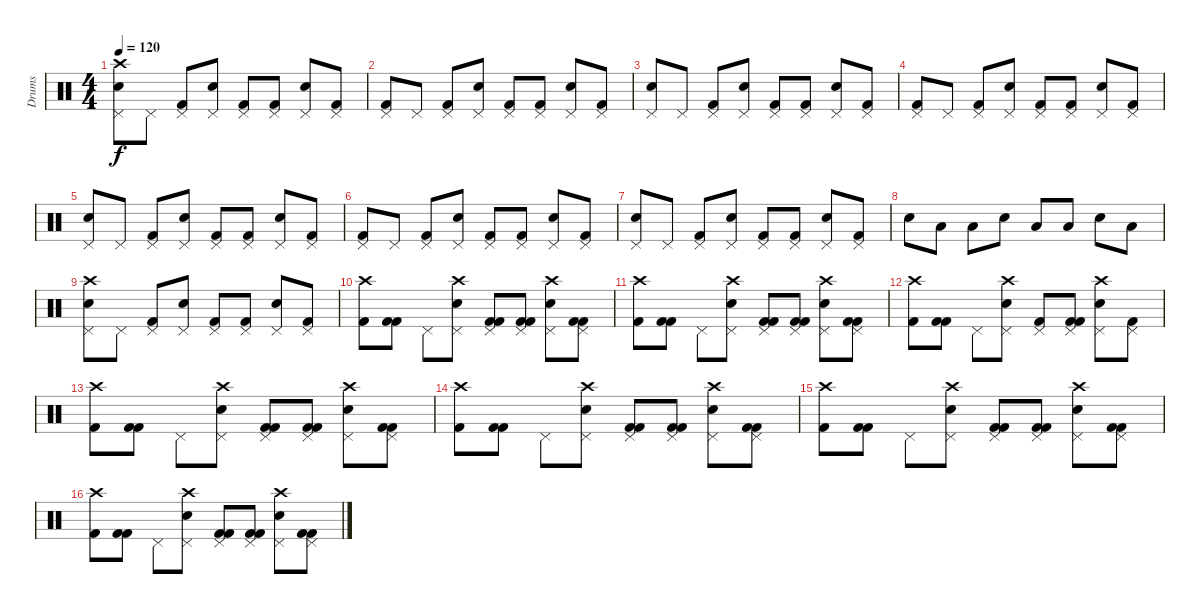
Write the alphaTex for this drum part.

\track ("Drums" "Drums") {instrument percussion}
\staff {score}
\articulation defaults
\ts (4 4)
\tempo 120
\clef neutral
\ks c
("Crash high (hit)" "Snare (hit) 2" "Pedal Hi-Hat (hit)").8{dy f} "Pedal Hi-Hat (hit)".8 ("Kick (hit) 2" "Pedal Hi-Hat (hit)").8 ("Snare (hit) 2" "Pedal Hi-Hat (hit)").8 ("Kick (hit) 2" "Pedal Hi-Hat (hit)").8 ("Kick (hit) 2" "Pedal Hi-Hat (hit)").8 ("Snare (hit) 2" "Pedal Hi-Hat (hit)").8 ("Kick (hit) 2" "Pedal Hi-Hat (hit)").8 |
("Kick (hit) 2" "Pedal Hi-Hat (hit)").8 "Pedal Hi-Hat (hit)".8 ("Kick (hit) 2" "Pedal Hi-Hat (hit)").8 ("Snare (hit) 2" "Pedal Hi-Hat (hit)").8 ("Kick (hit) 2" "Pedal Hi-Hat (hit)").8 ("Kick (hit) 2" "Pedal Hi-Hat (hit)").8 ("Snare (hit) 2" "Pedal Hi-Hat (hit)").8 ("Kick (hit) 2" "Pedal Hi-Hat (hit)").8 |
("Snare (hit) 2" "Pedal Hi-Hat (hit)").8 "Pedal Hi-Hat (hit)".8 ("Kick (hit) 2" "Pedal Hi-Hat (hit)").8 ("Snare (hit) 2" "Pedal Hi-Hat (hit)").8 ("Kick (hit) 2" "Pedal Hi-Hat (hit)").8 ("Kick (hit) 2" "Pedal Hi-Hat (hit)").8 ("Snare (hit) 2" "Pedal Hi-Hat (hit)").8 ("Kick (hit) 2" "Pedal Hi-Hat (hit)").8 |
("Kick (hit) 2" "Pedal Hi-Hat (hit)").8 "Pedal Hi-Hat (hit)".8 ("Kick (hit) 2" "Pedal Hi-Hat (hit)").8 ("Snare (hit) 2" "Pedal Hi-Hat (hit)").8 ("Kick (hit) 2" "Pedal Hi-Hat (hit)").8 ("Kick (hit) 2" "Pedal Hi-Hat (hit)").8 ("Snare (hit) 2" "Pedal Hi-Hat (hit)").8 ("Kick (hit) 2" "Pedal Hi-Hat (hit)").8 |
("Snare (hit) 2" "Pedal Hi-Hat (hit)").8 "Pedal Hi-Hat (hit)".8 ("Kick (hit) 2" "Pedal Hi-Hat (hit)").8 ("Snare (hit) 2" "Pedal Hi-Hat (hit)").8 ("Kick (hit) 2" "Pedal Hi-Hat (hit)").8 ("Kick (hit) 2" "Pedal Hi-Hat (hit)").8 ("Snare (hit) 2" "Pedal Hi-Hat (hit)").8 ("Kick (hit) 2" "Pedal Hi-Hat (hit)").8 |
("Kick (hit) 2" "Pedal Hi-Hat (hit)").8 "Pedal Hi-Hat (hit)".8 ("Kick (hit) 2" "Pedal Hi-Hat (hit)").8 ("Snare (hit) 2" "Pedal Hi-Hat (hit)").8 ("Kick (hit) 2" "Pedal Hi-Hat (hit)").8 ("Kick (hit) 2" "Pedal Hi-Hat (hit)").8 ("Snare (hit) 2" "Pedal Hi-Hat (hit)").8 ("Kick (hit) 2" "Pedal Hi-Hat (hit)").8 |
("Snare (hit) 2" "Pedal Hi-Hat (hit)").8 "Pedal Hi-Hat (hit)".8 ("Kick (hit) 2" "Pedal Hi-Hat (hit)").8 ("Snare (hit) 2" "Pedal Hi-Hat (hit)").8 ("Kick (hit) 2" "Pedal Hi-Hat (hit)").8 ("Kick (hit) 2" "Pedal Hi-Hat (hit)").8 ("Snare (hit) 2" "Pedal Hi-Hat (hit)").8 ("Kick (hit) 2" "Pedal Hi-Hat (hit)").8 |
"Snare (hit) 2".8 "Low Tom (hit)".8 "Low Tom (hit)".8 "Snare (hit) 2".8 "Low Tom (hit)".8 "Low Tom (hit)".8 "Snare (hit) 2".8 "Low Tom (hit)".8 |
("Crash high (hit)" "Snare (hit) 2" "Pedal Hi-Hat (hit)").8 "Pedal Hi-Hat (hit)".8 ("Kick (hit) 2" "Pedal Hi-Hat (hit)").8 ("Snare (hit) 2" "Pedal Hi-Hat (hit)").8 ("Kick (hit) 2" "Pedal Hi-Hat (hit)").8 ("Kick (hit) 2" "Pedal Hi-Hat (hit)").8 ("Snare (hit) 2" "Pedal Hi-Hat (hit)").8 ("Kick (hit) 2" "Pedal Hi-Hat (hit)").8 |
("Kick (hit) 2" "Crash high (hit)").8 ("Kick (hit) 2" "Kick (hit) 2").8 "Pedal Hi-Hat (hit)".8 ("Crash high (hit)" "Snare (hit) 2" "Pedal Hi-Hat (hit)").8 ("Kick (hit) 2" "Kick (hit) 2" "Pedal Hi-Hat (hit)").8 ("Kick (hit) 2" "Kick (hit) 2" "Pedal Hi-Hat (hit)").8 ("Crash high (hit)" "Snare (hit) 2" "Pedal Hi-Hat (hit)").8 ("Kick (hit) 2" "Kick (hit) 2" "Pedal Hi-Hat (hit)").8 |
("Kick (hit) 2" "Crash high (hit)").8 ("Kick (hit) 2" "Kick (hit) 2").8 "Pedal Hi-Hat (hit)".8 ("Crash high (hit)" "Snare (hit) 2" "Pedal Hi-Hat (hit)").8 ("Kick (hit) 2" "Kick (hit) 2" "Pedal Hi-Hat (hit)").8 ("Kick (hit) 2" "Kick (hit) 2" "Pedal Hi-Hat (hit)").8 ("Crash high (hit)" "Snare (hit) 2" "Pedal Hi-Hat (hit)").8 ("Kick (hit) 2" "Kick (hit) 2" "Pedal Hi-Hat (hit)").8 |
("Kick (hit) 2" "Crash high (hit)").8 ("Kick (hit) 2" "Kick (hit) 2").8 "Pedal Hi-Hat (hit)".8 ("Crash high (hit)" "Snare (hit) 2" "Pedal Hi-Hat (hit)").8 ("Kick (hit) 2" "Pedal Hi-Hat (hit)").8 ("Kick (hit) 2" "Kick (hit) 2" "Pedal Hi-Hat (hit)").8 ("Crash high (hit)" "Snare (hit) 2" "Pedal Hi-Hat (hit)").8 ("Kick (hit) 2" "Pedal Hi-Hat (hit)").8 |
("Kick (hit) 2" "Crash high (hit)").8 ("Kick (hit) 2" "Kick (hit) 2").8 "Pedal Hi-Hat (hit)".8 ("Crash high (hit)" "Snare (hit) 2" "Pedal Hi-Hat (hit)").8 ("Kick (hit) 2" "Kick (hit) 2" "Pedal Hi-Hat (hit)").8 ("Kick (hit) 2" "Kick (hit) 2" "Pedal Hi-Hat (hit)").8 ("Crash high (hit)" "Snare (hit) 2" "Pedal Hi-Hat (hit)").8 ("Kick (hit) 2" "Kick (hit) 2" "Pedal Hi-Hat (hit)").8 |
("Kick (hit) 2" "Crash high (hit)").8 ("Kick (hit) 2" "Kick (hit) 2").8 "Pedal Hi-Hat (hit)".8 ("Crash high (hit)" "Snare (hit) 2" "Pedal Hi-Hat (hit)").8 ("Kick (hit) 2" "Kick (hit) 2" "Pedal Hi-Hat (hit)").8 ("Kick (hit) 2" "Kick (hit) 2" "Pedal Hi-Hat (hit)").8 ("Crash high (hit)" "Snare (hit) 2" "Pedal Hi-Hat (hit)").8 ("Kick (hit) 2" "Kick (hit) 2" "Pedal Hi-Hat (hit)").8 |
("Kick (hit) 2" "Crash high (hit)").8 ("Kick (hit) 2" "Kick (hit) 2").8 "Pedal Hi-Hat (hit)".8 ("Crash high (hit)" "Snare (hit) 2" "Pedal Hi-Hat (hit)").8 ("Kick (hit) 2" "Kick (hit) 2" "Pedal Hi-Hat (hit)").8 ("Kick (hit) 2" "Kick (hit) 2" "Pedal Hi-Hat (hit)").8 ("Crash high (hit)" "Snare (hit) 2" "Pedal Hi-Hat (hit)").8 ("Kick (hit) 2" "Kick (hit) 2" "Pedal Hi-Hat (hit)").8 |
("Kick (hit) 2" "Crash high (hit)").8 ("Kick (hit) 2" "Kick (hit) 2").8 "Pedal Hi-Hat (hit)".8 ("Crash high (hit)" "Snare (hit) 2" "Pedal Hi-Hat (hit)").8 ("Kick (hit) 2" "Kick (hit) 2" "Pedal Hi-Hat (hit)").8 ("Kick (hit) 2" "Kick (hit) 2" "Pedal Hi-Hat (hit)").8 ("Crash high (hit)" "Snare (hit) 2" "Pedal Hi-Hat (hit)").8 ("Kick (hit) 2" "Kick (hit) 2" "Pedal Hi-Hat (hit)").8
